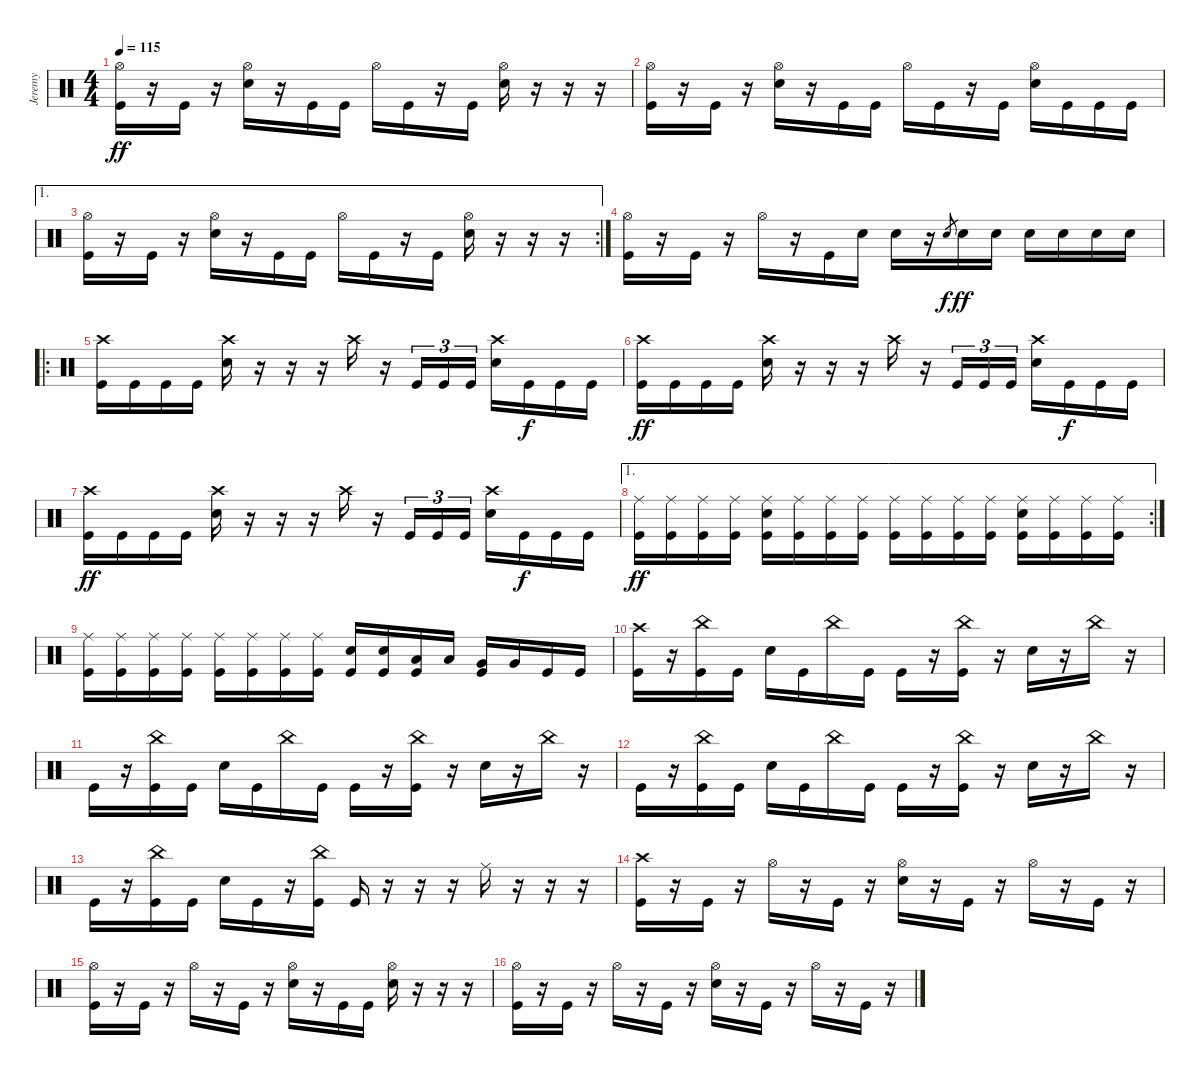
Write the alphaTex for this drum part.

\track ("Jeremy" "Jeremy") {instrument percussion}
\staff {score}
\articulation defaults
\ts (4 4)
\tempo 115
\clef neutral
\ks c
("Hi-Hat (open)" "Kick (hit)").16{dy ff} r.16 "Kick (hit)".16 r.16 ("Hi-Hat (open)" "Electric Snare (hit)").16 r.16 "Kick (hit)".16 "Kick (hit)".16 "Hi-Hat (open)".16 "Kick (hit)".16 r.16 "Kick (hit)".16 ("Hi-Hat (open)" "Electric Snare (hit)").16 r.16 r.16 r.16 |
("Hi-Hat (open)" "Kick (hit)").16 r.16 "Kick (hit)".16 r.16 ("Hi-Hat (open)" "Electric Snare (hit)").16 r.16 "Kick (hit)".16 "Kick (hit)".16 "Hi-Hat (open)".16 "Kick (hit)".16 r.16 "Kick (hit)".16 ("Hi-Hat (open)" "Electric Snare (hit)").16 "Kick (hit)".16 "Kick (hit)".16 "Kick (hit)".16 |
\ae 1
\rc 2
("Hi-Hat (open)" "Kick (hit)").16 r.16 "Kick (hit)".16 r.16 ("Hi-Hat (open)" "Electric Snare (hit)").16 r.16 "Kick (hit)".16 "Kick (hit)".16 "Hi-Hat (open)".16 "Kick (hit)".16 r.16 "Kick (hit)".16 ("Hi-Hat (open)" "Electric Snare (hit)").16 r.16 r.16 r.16 |
("Hi-Hat (open)" "Kick (hit)").16 r.16 "Kick (hit)".16 r.16 "Hi-Hat (open)".16 r.16 "Kick (hit)".16 "Electric Snare (hit)".16 "Electric Snare (hit)".16 r.16 "Electric Snare (hit)".8{gr dy f} "Electric Snare (hit)".16{dy ff} "Electric Snare (hit)".16 "Electric Snare (hit)".16 "Electric Snare (hit)".16 "Electric Snare (hit)".16 "Electric Snare (hit)".16 |
\ro
("Crash high (hit)" "Kick (hit)").16 "Kick (hit)".16 "Kick (hit)".16 "Kick (hit)".16 ("Crash high (hit)" "Electric Snare (hit)").16 r.16 r.16 r.16 "Crash high (hit)".16 r.16 "Kick (hit)".16{tu (3 2)} "Kick (hit)".16{tu (3 2)} "Kick (hit)".16{tu (3 2)} ("Crash high (hit)" "Electric Snare (hit)").16 "Kick (hit)".16{dy f} "Kick (hit)".16 "Kick (hit)".16 |
("Crash high (hit)" "Kick (hit)").16{dy ff} "Kick (hit)".16 "Kick (hit)".16 "Kick (hit)".16 ("Crash high (hit)" "Electric Snare (hit)").16 r.16 r.16 r.16 "Crash high (hit)".16 r.16 "Kick (hit)".16{tu (3 2)} "Kick (hit)".16{tu (3 2)} "Kick (hit)".16{tu (3 2)} ("Crash high (hit)" "Electric Snare (hit)").16 "Kick (hit)".16{dy f} "Kick (hit)".16 "Kick (hit)".16 |
("Crash high (hit)" "Kick (hit)").16{dy ff} "Kick (hit)".16 "Kick (hit)".16 "Kick (hit)".16 ("Crash high (hit)" "Electric Snare (hit)").16 r.16 r.16 r.16 "Crash high (hit)".16 r.16 "Kick (hit)".16{tu (3 2)} "Kick (hit)".16{tu (3 2)} "Kick (hit)".16{tu (3 2)} ("Crash high (hit)" "Electric Snare (hit)").16 "Kick (hit)".16{dy f} "Kick (hit)".16 "Kick (hit)".16 |
\ae 1
\rc 2
("Ride (middle)" "Kick (hit)").16{dy ff} ("Ride (middle)" "Kick (hit)").16 ("Ride (middle)" "Kick (hit)").16 ("Ride (middle)" "Kick (hit)").16 ("Ride (middle)" "Electric Snare (hit)" "Kick (hit)").16 ("Ride (middle)" "Kick (hit)").16 ("Ride (middle)" "Kick (hit)").16 ("Ride (middle)" "Kick (hit)").16 ("Ride (middle)" "Kick (hit)").16 ("Ride (middle)" "Kick (hit)").16 ("Ride (middle)" "Kick (hit)").16 ("Ride (middle)" "Kick (hit)").16 ("Ride (middle)" "Electric Snare (hit)" "Kick (hit)").16 ("Ride (middle)" "Kick (hit)").16 ("Ride (middle)" "Kick (hit)").16 ("Ride (middle)" "Kick (hit)").16 |
("Ride (middle)" "Kick (hit)").16 ("Ride (middle)" "Kick (hit)").16 ("Ride (middle)" "Kick (hit)").16 ("Ride (middle)" "Kick (hit)").16 ("Ride (middle)" "Kick (hit)").16 ("Ride (middle)" "Kick (hit)").16 ("Ride (middle)" "Kick (hit)").16 ("Ride (middle)" "Kick (hit)").16 ("Electric Snare (hit)" "Kick (hit)").16 ("Electric Snare (hit)" "Kick (hit)").16 ("Low Tom (hit)" "Kick (hit)").16 "Low Tom (hit)".16 ("Very Low Tom (hit)" "Kick (hit)").16 "Very Low Tom (hit)".16 "Kick (hit)".16 "Kick (hit)".16 |
("Crash high (hit)" "Kick (hit)").16 r.16 ("China (hit)" "Kick (hit)").16 "Kick (hit)".16 "Electric Snare (hit)".16 "Kick (hit)".16 "China (hit)".16 "Kick (hit)".16 "Kick (hit)".16 r.16 ("China (hit)" "Kick (hit)").16 r.16 "Electric Snare (hit)".16 r.16 "China (hit)".16 r.16 |
"Kick (hit)".16 r.16 ("China (hit)" "Kick (hit)").16 "Kick (hit)".16 "Electric Snare (hit)".16 "Kick (hit)".16 "China (hit)".16 "Kick (hit)".16 "Kick (hit)".16 r.16 ("China (hit)" "Kick (hit)").16 r.16 "Electric Snare (hit)".16 r.16 "China (hit)".16 r.16 |
"Kick (hit)".16 r.16 ("China (hit)" "Kick (hit)").16 "Kick (hit)".16 "Electric Snare (hit)".16 "Kick (hit)".16 "China (hit)".16 "Kick (hit)".16 "Kick (hit)".16 r.16 ("China (hit)" "Kick (hit)").16 r.16 "Electric Snare (hit)".16 r.16 "China (hit)".16 r.16 |
"Kick (hit)".16 r.16 ("China (hit)" "Kick (hit)").16 "Kick (hit)".16 "Electric Snare (hit)".16 "Kick (hit)".16 r.16 ("China (hit)" "Kick (hit)").16 "Kick (hit)".16 r.16 r.16 r.16 "Ride (middle)".16 r.16 r.16 r.16 |
("Crash high (hit)" "Kick (hit)").16 r.16 "Kick (hit)".16 r.16 "Hi-Hat (open)".16 r.16 "Kick (hit)".16 r.16 ("Hi-Hat (open)" "Electric Snare (hit)").16 r.16 "Kick (hit)".16 r.16 "Hi-Hat (open)".16 r.16 "Kick (hit)".16 r.16 |
("Hi-Hat (open)" "Kick (hit)").16 r.16 "Kick (hit)".16 r.16 "Hi-Hat (open)".16 r.16 "Kick (hit)".16 r.16 ("Hi-Hat (open)" "Electric Snare (hit)").16 r.16 "Kick (hit)".16 "Kick (hit)".16 ("Hi-Hat (open)" "Electric Snare (hit)").16 r.16 r.16 r.16 |
("Hi-Hat (open)" "Kick (hit)").16 r.16 "Kick (hit)".16 r.16 "Hi-Hat (open)".16 r.16 "Kick (hit)".16 r.16 ("Hi-Hat (open)" "Electric Snare (hit)").16 r.16 "Kick (hit)".16 r.16 "Hi-Hat (open)".16 r.16 "Kick (hit)".16 r.16
